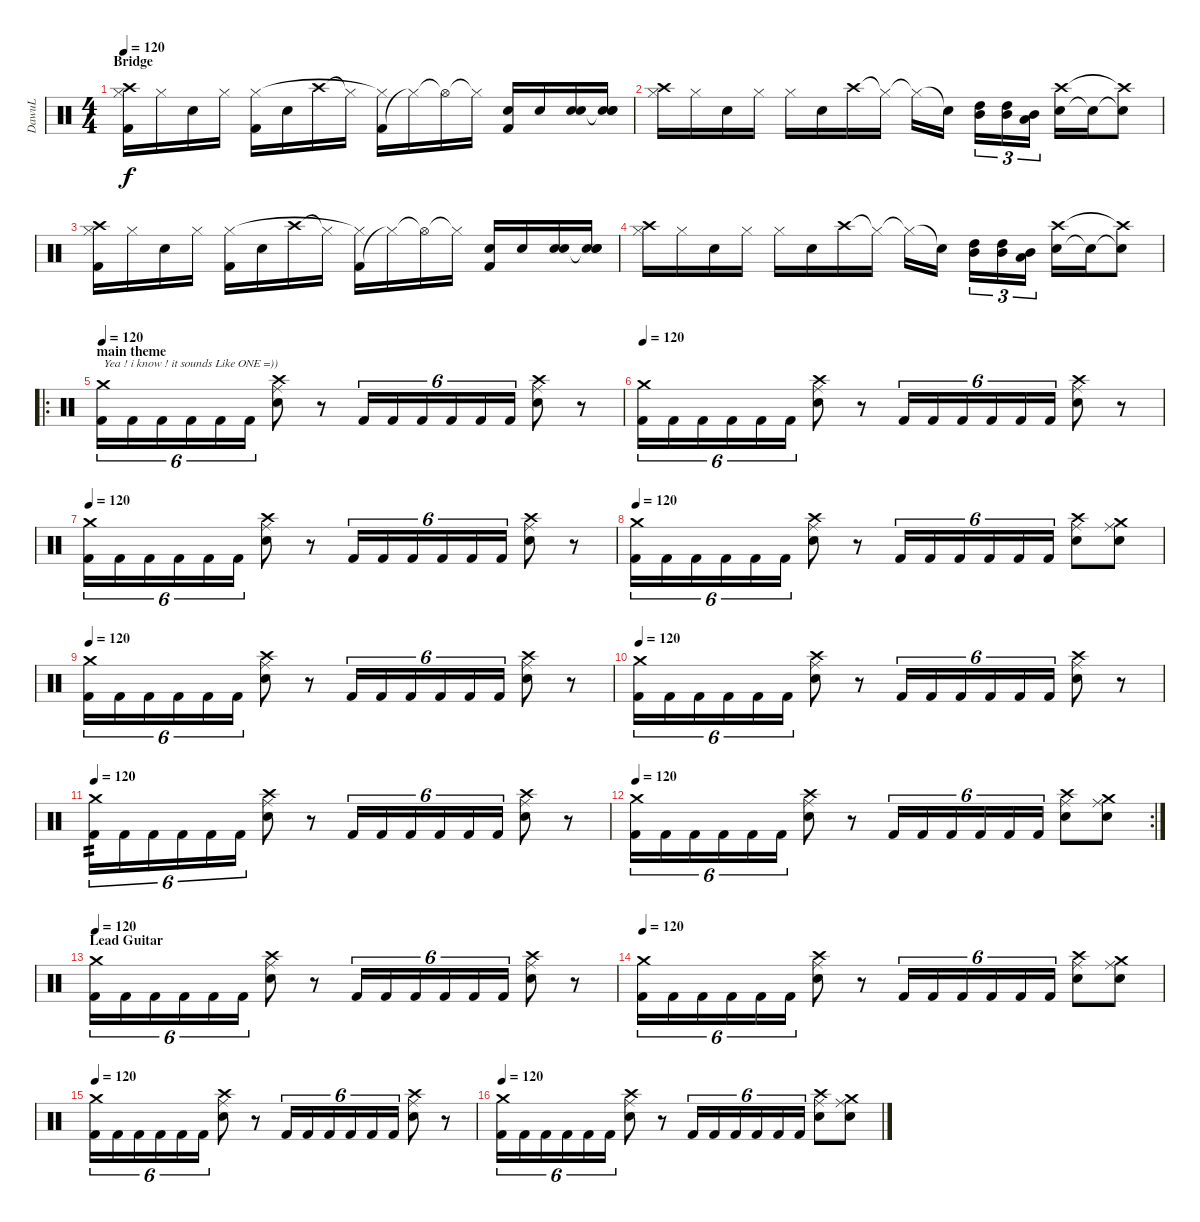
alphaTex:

\track ("DawuL" "DawuL") {instrument percussion}
\staff {score}
\articulation defaults
\ts (4 4)
\section ("" "Bridge")
\tempo 120
\clef neutral
\ks c
("Crash high (hit)" "Kick (hit) 2" "Hi-Hat (closed)").16{dy f} "Hi-Hat (closed)".16 "Electric Snare (hit)".16 "Hi-Hat (closed)".16 ("Kick (hit) 2" "Hi-Hat (closed)").16 "Electric Snare (hit)".16 "Crash high (hit)".16 "Hi-Hat (closed)"{t}.16 ("Kick (hit) 2" "Hi-Hat (closed)"{t}).16 "Hi-Hat (closed)"{t}.16 "Hi-Hat (open)"{t}.16 "Hi-Hat (closed)"{t}.16 ("Kick (hit) 2" "Electric Snare (hit)").16 "Electric Snare (hit)".16 ("Electric Snare (hit)" "Electric Snare (hit)").16 ("Snare (hit)"{t} "Electric Snare (hit)" "Electric Snare (hit)").16 |
("Crash high (hit)" "Hi-Hat (closed)").16 "Hi-Hat (closed)".16 "Electric Snare (hit)".16 "Hi-Hat (closed)".16 "Hi-Hat (closed)".16 "Electric Snare (hit)".16 "Crash high (hit)".16 "Hi-Hat (closed)"{t}.16 "Hi-Hat (closed)"{t}.16 "Electric Snare (hit)"{t}.16 ("Mid Tom (hit)" "High Tom (hit)").16{tu (3 2)} ("Mid Tom (hit)" "High Tom (hit)").16{tu (3 2)} ("Mid Tom (hit)" "Low Tom (hit)").16{tu (3 2)} ("Electric Snare (hit)" "Crash high (hit)").16 "Electric Snare (hit)"{t}.16 ("Snare (hit)"{t} "Crash high (hit)"{t}).8 |
("Crash high (hit)" "Kick (hit) 2" "Hi-Hat (closed)").16 "Hi-Hat (closed)".16 "Electric Snare (hit)".16 "Hi-Hat (closed)".16 ("Kick (hit) 2" "Hi-Hat (closed)").16 "Electric Snare (hit)".16 "Crash high (hit)".16 "Hi-Hat (closed)"{t}.16 ("Kick (hit) 2" "Hi-Hat (closed)"{t}).16 "Hi-Hat (closed)"{t}.16 "Hi-Hat (open)"{t}.16 "Hi-Hat (closed)"{t}.16 ("Kick (hit) 2" "Electric Snare (hit)").16 "Electric Snare (hit)".16 ("Electric Snare (hit)" "Electric Snare (hit)").16 ("Snare (hit)"{t} "Electric Snare (hit)" "Electric Snare (hit)").16 |
("Crash high (hit)" "Hi-Hat (closed)").16 "Hi-Hat (closed)".16 "Electric Snare (hit)".16 "Hi-Hat (closed)".16 "Hi-Hat (closed)".16 "Electric Snare (hit)".16 "Crash high (hit)".16 "Hi-Hat (closed)"{t}.16 "Hi-Hat (closed)"{t}.16 "Electric Snare (hit)"{t}.16 ("Mid Tom (hit)" "High Tom (hit)").16{tu (3 2)} ("Mid Tom (hit)" "High Tom (hit)").16{tu (3 2)} ("Mid Tom (hit)" "Low Tom (hit)").16{tu (3 2)} ("Electric Snare (hit)" "Crash high (hit)").16 "Electric Snare (hit)"{t}.16 ("Snare (hit)"{t} "Crash high (hit)"{t}).8 |
\ro
\section ("" "main theme")
\tempo 120
("Crash medium (hit)" "Kick (hit) 2").16{tu (6 4) txt "Yea ! i know ! it sounds Like ONE =))"} "Kick (hit) 2".16{tu (6 4)} "Kick (hit) 2".16{tu (6 4)} "Kick (hit) 2".16{tu (6 4)} "Kick (hit) 2".16{tu (6 4)} "Kick (hit) 2".16{tu (6 4)} ("Electric Snare (hit)" "Ride (middle)" "Crash high (hit)").8 r.8 "Kick (hit) 2".16{tu (6 4)} "Kick (hit) 2".16{tu (6 4)} "Kick (hit) 2".16{tu (6 4)} "Kick (hit) 2".16{tu (6 4)} "Kick (hit) 2".16{tu (6 4)} "Kick (hit) 2".16{tu (6 4)} ("Electric Snare (hit)" "Ride (middle)" "Crash high (hit)").8 r.8 |
\tempo 120
("Crash medium (hit)" "Kick (hit) 2").16{tu (6 4)} "Kick (hit) 2".16{tu (6 4)} "Kick (hit) 2".16{tu (6 4)} "Kick (hit) 2".16{tu (6 4)} "Kick (hit) 2".16{tu (6 4)} "Kick (hit) 2".16{tu (6 4)} ("Electric Snare (hit)" "Ride (middle)" "Crash high (hit)").8 r.8 "Kick (hit) 2".16{tu (6 4)} "Kick (hit) 2".16{tu (6 4)} "Kick (hit) 2".16{tu (6 4)} "Kick (hit) 2".16{tu (6 4)} "Kick (hit) 2".16{tu (6 4)} "Kick (hit) 2".16{tu (6 4)} ("Electric Snare (hit)" "Ride (middle)" "Crash high (hit)").8 r.8 |
\tempo 120
("Crash medium (hit)" "Kick (hit) 2").16{tu (6 4)} "Kick (hit) 2".16{tu (6 4)} "Kick (hit) 2".16{tu (6 4)} "Kick (hit) 2".16{tu (6 4)} "Kick (hit) 2".16{tu (6 4)} "Kick (hit) 2".16{tu (6 4)} ("Electric Snare (hit)" "Ride (middle)" "Crash high (hit)").8 r.8 "Kick (hit) 2".16{tu (6 4)} "Kick (hit) 2".16{tu (6 4)} "Kick (hit) 2".16{tu (6 4)} "Kick (hit) 2".16{tu (6 4)} "Kick (hit) 2".16{tu (6 4)} "Kick (hit) 2".16{tu (6 4)} ("Electric Snare (hit)" "Ride (middle)" "Crash high (hit)").8 r.8 |
\tempo 120
("Crash medium (hit)" "Kick (hit) 2").16{tu (6 4)} "Kick (hit) 2".16{tu (6 4)} "Kick (hit) 2".16{tu (6 4)} "Kick (hit) 2".16{tu (6 4)} "Kick (hit) 2".16{tu (6 4)} "Kick (hit) 2".16{tu (6 4)} ("Electric Snare (hit)" "Ride (middle)" "Crash high (hit)").8 r.8 "Kick (hit) 2".16{tu (6 4)} "Kick (hit) 2".16{tu (6 4)} "Kick (hit) 2".16{tu (6 4)} "Kick (hit) 2".16{tu (6 4)} "Kick (hit) 2".16{tu (6 4)} "Kick (hit) 2".16{tu (6 4)} ("Electric Snare (hit)" "Ride (middle)" "Crash high (hit)").8 ("Electric Snare (hit)" "Ride (middle)" "Crash medium (hit)").8 |
\tempo 120
("Crash medium (hit)" "Kick (hit) 2").16{tu (6 4)} "Kick (hit) 2".16{tu (6 4)} "Kick (hit) 2".16{tu (6 4)} "Kick (hit) 2".16{tu (6 4)} "Kick (hit) 2".16{tu (6 4)} "Kick (hit) 2".16{tu (6 4)} ("Electric Snare (hit)" "Ride (middle)" "Crash high (hit)").8 r.8 "Kick (hit) 2".16{tu (6 4)} "Kick (hit) 2".16{tu (6 4)} "Kick (hit) 2".16{tu (6 4)} "Kick (hit) 2".16{tu (6 4)} "Kick (hit) 2".16{tu (6 4)} "Kick (hit) 2".16{tu (6 4)} ("Electric Snare (hit)" "Ride (middle)" "Crash high (hit)").8 r.8 |
\tempo 120
("Crash medium (hit)" "Kick (hit) 2").16{tu (6 4)} "Kick (hit) 2".16{tu (6 4)} "Kick (hit) 2".16{tu (6 4)} "Kick (hit) 2".16{tu (6 4)} "Kick (hit) 2".16{tu (6 4)} "Kick (hit) 2".16{tu (6 4)} ("Electric Snare (hit)" "Ride (middle)" "Crash high (hit)").8 r.8 "Kick (hit) 2".16{tu (6 4)} "Kick (hit) 2".16{tu (6 4)} "Kick (hit) 2".16{tu (6 4)} "Kick (hit) 2".16{tu (6 4)} "Kick (hit) 2".16{tu (6 4)} "Kick (hit) 2".16{tu (6 4)} ("Electric Snare (hit)" "Ride (middle)" "Crash high (hit)").8 r.8 |
\tempo 120
("Crash medium (hit)" "Kick (hit) 2").16{tu (6 4) tp 2} "Kick (hit) 2".16{tu (6 4)} "Kick (hit) 2".16{tu (6 4)} "Kick (hit) 2".16{tu (6 4)} "Kick (hit) 2".16{tu (6 4)} "Kick (hit) 2".16{tu (6 4)} ("Electric Snare (hit)" "Ride (middle)" "Crash high (hit)").8 r.8 "Kick (hit) 2".16{tu (6 4)} "Kick (hit) 2".16{tu (6 4)} "Kick (hit) 2".16{tu (6 4)} "Kick (hit) 2".16{tu (6 4)} "Kick (hit) 2".16{tu (6 4)} "Kick (hit) 2".16{tu (6 4)} ("Electric Snare (hit)" "Ride (middle)" "Crash high (hit)").8 r.8 |
\rc 2
\tempo 120
("Crash medium (hit)" "Kick (hit) 2").16{tu (6 4)} "Kick (hit) 2".16{tu (6 4)} "Kick (hit) 2".16{tu (6 4)} "Kick (hit) 2".16{tu (6 4)} "Kick (hit) 2".16{tu (6 4)} "Kick (hit) 2".16{tu (6 4)} ("Electric Snare (hit)" "Ride (middle)" "Crash high (hit)").8 r.8 "Kick (hit) 2".16{tu (6 4)} "Kick (hit) 2".16{tu (6 4)} "Kick (hit) 2".16{tu (6 4)} "Kick (hit) 2".16{tu (6 4)} "Kick (hit) 2".16{tu (6 4)} "Kick (hit) 2".16{tu (6 4)} ("Electric Snare (hit)" "Ride (middle)" "Crash high (hit)").8 ("Electric Snare (hit)" "Ride (middle)" "Crash medium (hit)").8 |
\section ("" "Lead Guitar")
\tempo 120
("Crash medium (hit)" "Kick (hit) 2").16{tu (6 4)} "Kick (hit) 2".16{tu (6 4)} "Kick (hit) 2".16{tu (6 4)} "Kick (hit) 2".16{tu (6 4)} "Kick (hit) 2".16{tu (6 4)} "Kick (hit) 2".16{tu (6 4)} ("Electric Snare (hit)" "Ride (middle)" "Crash high (hit)").8 r.8 "Kick (hit) 2".16{tu (6 4)} "Kick (hit) 2".16{tu (6 4)} "Kick (hit) 2".16{tu (6 4)} "Kick (hit) 2".16{tu (6 4)} "Kick (hit) 2".16{tu (6 4)} "Kick (hit) 2".16{tu (6 4)} ("Electric Snare (hit)" "Ride (middle)" "Crash high (hit)").8 r.8 |
\tempo 120
("Crash medium (hit)" "Kick (hit) 2").16{tu (6 4)} "Kick (hit) 2".16{tu (6 4)} "Kick (hit) 2".16{tu (6 4)} "Kick (hit) 2".16{tu (6 4)} "Kick (hit) 2".16{tu (6 4)} "Kick (hit) 2".16{tu (6 4)} ("Electric Snare (hit)" "Ride (middle)" "Crash high (hit)").8 r.8 "Kick (hit) 2".16{tu (6 4)} "Kick (hit) 2".16{tu (6 4)} "Kick (hit) 2".16{tu (6 4)} "Kick (hit) 2".16{tu (6 4)} "Kick (hit) 2".16{tu (6 4)} "Kick (hit) 2".16{tu (6 4)} ("Electric Snare (hit)" "Ride (middle)" "Crash high (hit)").8 ("Electric Snare (hit)" "Ride (middle)" "Crash medium (hit)").8 |
\tempo 120
("Crash medium (hit)" "Kick (hit) 2").16{tu (6 4)} "Kick (hit) 2".16{tu (6 4)} "Kick (hit) 2".16{tu (6 4)} "Kick (hit) 2".16{tu (6 4)} "Kick (hit) 2".16{tu (6 4)} "Kick (hit) 2".16{tu (6 4)} ("Electric Snare (hit)" "Ride (middle)" "Crash high (hit)").8 r.8 "Kick (hit) 2".16{tu (6 4)} "Kick (hit) 2".16{tu (6 4)} "Kick (hit) 2".16{tu (6 4)} "Kick (hit) 2".16{tu (6 4)} "Kick (hit) 2".16{tu (6 4)} "Kick (hit) 2".16{tu (6 4)} ("Electric Snare (hit)" "Ride (middle)" "Crash high (hit)").8 r.8 |
\tempo 120
("Crash medium (hit)" "Kick (hit) 2").16{tu (6 4)} "Kick (hit) 2".16{tu (6 4)} "Kick (hit) 2".16{tu (6 4)} "Kick (hit) 2".16{tu (6 4)} "Kick (hit) 2".16{tu (6 4)} "Kick (hit) 2".16{tu (6 4)} ("Electric Snare (hit)" "Ride (middle)" "Crash high (hit)").8 r.8 "Kick (hit) 2".16{tu (6 4)} "Kick (hit) 2".16{tu (6 4)} "Kick (hit) 2".16{tu (6 4)} "Kick (hit) 2".16{tu (6 4)} "Kick (hit) 2".16{tu (6 4)} "Kick (hit) 2".16{tu (6 4)} ("Electric Snare (hit)" "Ride (middle)" "Crash high (hit)").8 ("Electric Snare (hit)" "Ride (middle)" "Crash medium (hit)").8
